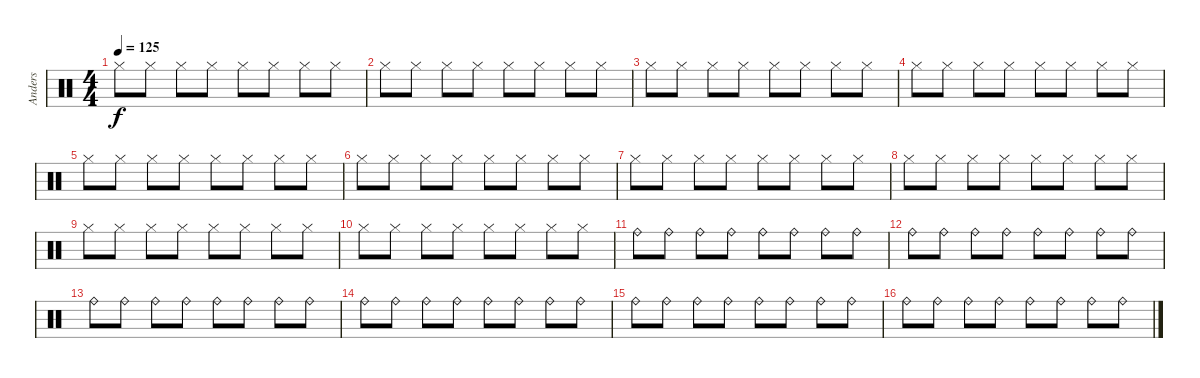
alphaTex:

\track ("Anders" "Anders") {instrument percussion}
\staff {score}
\articulation defaults
\ts (4 4)
\tempo 125
\clef neutral
\ks c "Hi-Hat (closed)".8{dy f} "Hi-Hat (closed)".8 "Hi-Hat (closed)".8 "Hi-Hat (closed)".8 "Hi-Hat (closed)".8 "Hi-Hat (closed)".8 "Hi-Hat (closed)".8 "Hi-Hat (closed)".8
|
"Hi-Hat (closed)".8 "Hi-Hat (closed)".8 "Hi-Hat (closed)".8 "Hi-Hat (closed)".8 "Hi-Hat (closed)".8 "Hi-Hat (closed)".8 "Hi-Hat (closed)".8 "Hi-Hat (closed)".8 |
"Hi-Hat (closed)".8 "Hi-Hat (closed)".8 "Hi-Hat (closed)".8 "Hi-Hat (closed)".8 "Hi-Hat (closed)".8 "Hi-Hat (closed)".8 "Hi-Hat (closed)".8 "Hi-Hat (closed)".8 |
"Hi-Hat (closed)".8 "Hi-Hat (closed)".8 "Hi-Hat (closed)".8 "Hi-Hat (closed)".8 "Hi-Hat (closed)".8 "Hi-Hat (closed)".8 "Hi-Hat (closed)".8 "Hi-Hat (closed)".8 |
"Hi-Hat (closed)".8 "Hi-Hat (closed)".8 "Hi-Hat (closed)".8 "Hi-Hat (closed)".8 "Hi-Hat (closed)".8 "Hi-Hat (closed)".8 "Hi-Hat (closed)".8 "Hi-Hat (closed)".8 |
"Hi-Hat (closed)".8 "Hi-Hat (closed)".8 "Hi-Hat (closed)".8 "Hi-Hat (closed)".8 "Hi-Hat (closed)".8 "Hi-Hat (closed)".8 "Hi-Hat (closed)".8 "Hi-Hat (closed)".8 |
"Hi-Hat (closed)".8 "Hi-Hat (closed)".8 "Hi-Hat (closed)".8 "Hi-Hat (closed)".8 "Hi-Hat (closed)".8 "Hi-Hat (closed)".8 "Hi-Hat (closed)".8 "Hi-Hat (closed)".8 |
"Hi-Hat (closed)".8 "Hi-Hat (closed)".8 "Hi-Hat (closed)".8 "Hi-Hat (closed)".8 "Hi-Hat (closed)".8 "Hi-Hat (closed)".8 "Hi-Hat (closed)".8 "Hi-Hat (closed)".8 |
"Hi-Hat (closed)".8 "Hi-Hat (closed)".8 "Hi-Hat (closed)".8 "Hi-Hat (closed)".8 "Hi-Hat (closed)".8 "Hi-Hat (closed)".8 "Hi-Hat (closed)".8 "Hi-Hat (closed)".8 |
"Hi-Hat (closed)".8 "Hi-Hat (closed)".8 "Hi-Hat (closed)".8 "Hi-Hat (closed)".8 "Hi-Hat (closed)".8 "Hi-Hat (closed)".8 "Hi-Hat (closed)".8 "Hi-Hat (closed)".8 |
"Ride (bell)".8 "Ride (bell)".8 "Ride (bell)".8 "Ride (bell)".8 "Ride (bell)".8 "Ride (bell)".8 "Ride (bell)".8 "Ride (bell)".8 |
"Ride (bell)".8 "Ride (bell)".8 "Ride (bell)".8 "Ride (bell)".8 "Ride (bell)".8 "Ride (bell)".8 "Ride (bell)".8 "Ride (bell)".8 |
"Ride (bell)".8 "Ride (bell)".8 "Ride (bell)".8 "Ride (bell)".8 "Ride (bell)".8 "Ride (bell)".8 "Ride (bell)".8 "Ride (bell)".8 |
"Ride (bell)".8 "Ride (bell)".8 "Ride (bell)".8 "Ride (bell)".8 "Ride (bell)".8 "Ride (bell)".8 "Ride (bell)".8 "Ride (bell)".8 |
"Ride (bell)".8 "Ride (bell)".8 "Ride (bell)".8 "Ride (bell)".8 "Ride (bell)".8 "Ride (bell)".8 "Ride (bell)".8 "Ride (bell)".8 |
"Ride (bell)".8 "Ride (bell)".8 "Ride (bell)".8 "Ride (bell)".8 "Ride (bell)".8 "Ride (bell)".8 "Ride (bell)".8 "Ride (bell)".8
